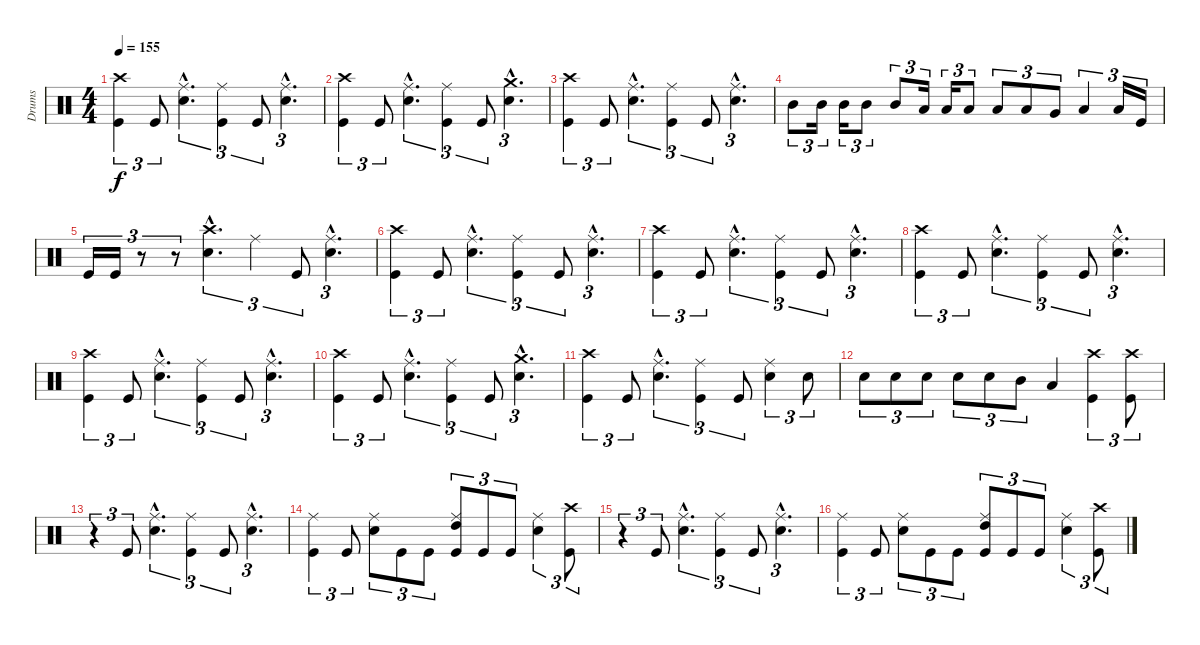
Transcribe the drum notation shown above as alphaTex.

\track ("Drums" "Drums") {instrument percussion}
\staff {score}
\articulation defaults
\ts (4 4)
\tempo 155
\clef neutral
\ks c
("Crash high (hit)" "Kick (hit)").4{tu (3 2) dy f} "Kick (hit)".8{tu (3 2)} ("Ride (middle)"{hac} "Snare (hit) 2"{hac}).4{d tu (3 2)} ("Ride (middle)" "Kick (hit)").4{tu (3 2)} "Kick (hit)".8{tu (3 2)} ("Ride (middle)"{hac} "Snare (hit) 2"{hac}).4{d tu (3 2)} |
("Crash high (hit)" "Kick (hit)").4{tu (3 2)} "Kick (hit)".8{tu (3 2)} ("Ride (middle)"{hac} "Snare (hit) 2"{hac}).4{d tu (3 2)} ("Ride (middle)" "Kick (hit)").4{tu (3 2)} "Kick (hit)".8{tu (3 2)} ("Crash medium (hit)"{hac} "Snare (hit) 2"{hac}).4{d tu (3 2)} |
("Crash high (hit)" "Kick (hit)").4{tu (3 2)} "Kick (hit)".8{tu (3 2)} ("Ride (middle)"{hac} "Snare (hit) 2"{hac}).4{d tu (3 2)} ("Ride (middle)" "Kick (hit)").4{tu (3 2)} "Kick (hit)".8{tu (3 2)} ("Ride (middle)"{hac} "Snare (hit) 2"{hac}).4{d tu (3 2)} |
"Mid Tom (hit)".8{tu (3 2)} "Mid Tom (hit)".16{tu (3 2)} "Mid Tom (hit)".16{tu (3 2)} "Mid Tom (hit)".8{tu (3 2)} "Mid Tom (hit)".8{tu (3 2)} "Low Tom (hit)".16{tu (3 2)} "Low Tom (hit)".16{tu (3 2)} "Low Tom (hit)".8{tu (3 2)} "Low Tom (hit)".8{tu (3 2)} "Low Tom (hit)".8{tu (3 2)} "Very Low Tom (hit)".8{tu (3 2)} "Low Floor Tom (hit)".4{tu (3 2)} "Low Floor Tom (hit)".16{tu (3 2)} "Kick (hit)".16{tu (3 2)} |
"Kick (hit)".16{tu (3 2)} "Kick (hit)".16{tu (3 2)} r.8{tu (3 2)} r.8{tu (3 2)} ("Crash high (hit)"{hac} "Snare (hit) 2"{hac}).4{d tu (3 2)} "Ride (middle)".4{tu (3 2)} "Kick (hit)".8{tu (3 2)} ("Ride (middle)"{hac} "Snare (hit) 2"{hac}).4{d tu (3 2)} |
("Crash high (hit)" "Kick (hit)").4{tu (3 2)} "Kick (hit)".8{tu (3 2)} ("Ride (middle)"{hac} "Snare (hit) 2"{hac}).4{d tu (3 2)} ("Ride (middle)" "Kick (hit)").4{tu (3 2)} "Kick (hit)".8{tu (3 2)} ("Ride (middle)"{hac} "Snare (hit) 2"{hac}).4{d tu (3 2)} |
("Crash high (hit)" "Kick (hit)").4{tu (3 2)} "Kick (hit)".8{tu (3 2)} ("Ride (middle)"{hac} "Snare (hit) 2"{hac}).4{d tu (3 2)} ("Ride (middle)" "Kick (hit)").4{tu (3 2)} "Kick (hit)".8{tu (3 2)} ("Ride (middle)"{hac} "Snare (hit) 2"{hac}).4{d tu (3 2)} |
("Crash high (hit)" "Kick (hit)").4{tu (3 2)} "Kick (hit)".8{tu (3 2)} ("Ride (middle)"{hac} "Snare (hit) 2"{hac}).4{d tu (3 2)} ("Ride (middle)" "Kick (hit)").4{tu (3 2)} "Kick (hit)".8{tu (3 2)} ("Ride (middle)"{hac} "Snare (hit) 2"{hac}).4{d tu (3 2)} |
("Crash high (hit)" "Kick (hit)").4{tu (3 2)} "Kick (hit)".8{tu (3 2)} ("Ride (middle)"{hac} "Snare (hit) 2"{hac}).4{d tu (3 2)} ("Ride (middle)" "Kick (hit)").4{tu (3 2)} "Kick (hit)".8{tu (3 2)} ("Ride (middle)"{hac} "Snare (hit) 2"{hac}).4{d tu (3 2)} |
("Crash high (hit)" "Kick (hit)").4{tu (3 2)} "Kick (hit)".8{tu (3 2)} ("Ride (middle)"{hac} "Snare (hit) 2"{hac}).4{d tu (3 2)} ("Ride (middle)" "Kick (hit)").4{tu (3 2)} "Kick (hit)".8{tu (3 2)} ("Crash medium (hit)"{hac} "Snare (hit) 2"{hac}).4{d tu (3 2)} |
("Crash high (hit)" "Kick (hit)").4{tu (3 2)} "Kick (hit)".8{tu (3 2)} ("Ride (middle)"{hac} "Snare (hit) 2"{hac}).4{d tu (3 2)} ("Ride (middle)" "Kick (hit)").4{tu (3 2)} "Kick (hit)".8{tu (3 2)} ("Ride (middle)" "Snare (hit) 2").4{tu (3 2)} "Snare (hit) 2".8{tu (3 2)} |
"Snare (hit) 2".8{tu (3 2)} "Snare (hit) 2".8{tu (3 2)} "Snare (hit) 2".8{tu (3 2)} "Snare (hit) 2".8{tu (3 2)} "Snare (hit) 2".8{tu (3 2)} "Mid Tom (hit)".8{tu (3 2)} "Low Tom (hit)".4 ("Crash high (hit)" "Kick (hit)").4{tu (3 2)} ("Crash high (hit)" "Kick (hit)").8{tu (3 2)} |
r.4{tu (3 2)} "Kick (hit)".8{tu (3 2)} ("Ride (middle)"{hac} "Snare (hit) 2"{hac}).4{d tu (3 2)} ("Ride (middle)" "Kick (hit)").4{tu (3 2)} "Kick (hit)".8{tu (3 2)} ("Ride (middle)"{hac} "Snare (hit) 2"{hac}).4{d tu (3 2)} |
("Ride (middle)" "Kick (hit)").4{tu (3 2)} "Kick (hit)".8{tu (3 2)} ("Ride (middle)" "Snare (hit) 2").8{tu (3 2)} "Kick (hit)".8{tu (3 2)} "Kick (hit)".8{tu (3 2)} ("Ride (middle)" "Kick (hit)" "High Tom (hit)").8{tu (3 2)} "Kick (hit)".8{tu (3 2)} "Kick (hit)".8{tu (3 2)} ("Ride (middle)" "Snare (hit) 2").4{tu (3 2)} ("Crash high (hit)" "Kick (hit)").8{tu (3 2)} |
r.4{tu (3 2)} "Kick (hit)".8{tu (3 2)} ("Ride (middle)"{hac} "Snare (hit) 2"{hac}).4{d tu (3 2)} ("Ride (middle)" "Kick (hit)").4{tu (3 2)} "Kick (hit)".8{tu (3 2)} ("Ride (middle)"{hac} "Snare (hit) 2"{hac}).4{d tu (3 2)} |
("Ride (middle)" "Kick (hit)").4{tu (3 2)} "Kick (hit)".8{tu (3 2)} ("Ride (middle)" "Snare (hit) 2").8{tu (3 2)} "Kick (hit)".8{tu (3 2)} "Kick (hit)".8{tu (3 2)} ("Ride (middle)" "Kick (hit)" "High Tom (hit)").8{tu (3 2)} "Kick (hit)".8{tu (3 2)} "Kick (hit)".8{tu (3 2)} ("Ride (middle)" "Snare (hit) 2").4{tu (3 2)} ("Crash high (hit)" "Kick (hit)").8{tu (3 2)}
